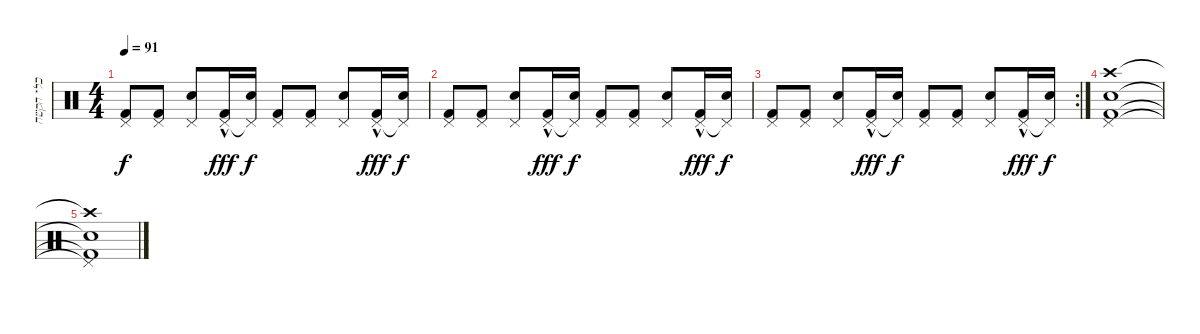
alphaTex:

\track ("כלי הקשה" "כלי הקשה") {instrument percussion}
\staff {score}
\articulation defaults
\ts (4 4)
\tempo 91
\clef neutral
\ks c
("Pedal Hi-Hat (hit)" "Kick (hit) 2").8{dy f} ("Pedal Hi-Hat (hit)" "Kick (hit) 2").8 ("Pedal Hi-Hat (hit)" "Electric Snare (hit)").8 ("Pedal Hi-Hat (hit)"{hac} "Kick (hit) 2").16{dy fff} ("Pedal Hi-Hat (hit)"{t} "Electric Snare (hit)").16{dy f} ("Pedal Hi-Hat (hit)" "Kick (hit) 2").8 ("Pedal Hi-Hat (hit)" "Kick (hit) 2").8 ("Pedal Hi-Hat (hit)" "Electric Snare (hit)").8 ("Pedal Hi-Hat (hit)"{hac} "Kick (hit) 2").16{dy fff} ("Pedal Hi-Hat (hit)"{t} "Electric Snare (hit)").16{dy f} |
("Pedal Hi-Hat (hit)" "Kick (hit) 2").8 ("Pedal Hi-Hat (hit)" "Kick (hit) 2").8 ("Pedal Hi-Hat (hit)" "Electric Snare (hit)").8 ("Pedal Hi-Hat (hit)"{hac} "Kick (hit) 2").16{dy fff} ("Pedal Hi-Hat (hit)"{t} "Electric Snare (hit)").16{dy f} ("Pedal Hi-Hat (hit)" "Kick (hit) 2").8 ("Pedal Hi-Hat (hit)" "Kick (hit) 2").8 ("Pedal Hi-Hat (hit)" "Electric Snare (hit)").8 ("Pedal Hi-Hat (hit)"{hac} "Kick (hit) 2").16{dy fff} ("Pedal Hi-Hat (hit)"{t} "Electric Snare (hit)").16{dy f} |
\rc 2
("Pedal Hi-Hat (hit)" "Kick (hit) 2").8 ("Pedal Hi-Hat (hit)" "Kick (hit) 2").8 ("Pedal Hi-Hat (hit)" "Electric Snare (hit)").8 ("Pedal Hi-Hat (hit)"{hac} "Kick (hit) 2").16{dy fff} ("Pedal Hi-Hat (hit)"{t} "Electric Snare (hit)").16{dy f} ("Pedal Hi-Hat (hit)" "Kick (hit) 2").8 ("Pedal Hi-Hat (hit)" "Kick (hit) 2").8 ("Pedal Hi-Hat (hit)" "Electric Snare (hit)").8 ("Pedal Hi-Hat (hit)"{hac} "Kick (hit) 2").16{dy fff} ("Pedal Hi-Hat (hit)"{t} "Electric Snare (hit)").16{dy f} |
("Pedal Hi-Hat (hit)" "Electric Snare (hit)" "Kick (hit) 2" "Crash high (hit)").1 |
("Pedal Hi-Hat (hit)"{t} "Electric Snare (hit)"{t} "Kick (hit) 2"{t} "Crash high (hit)"{t}).1
